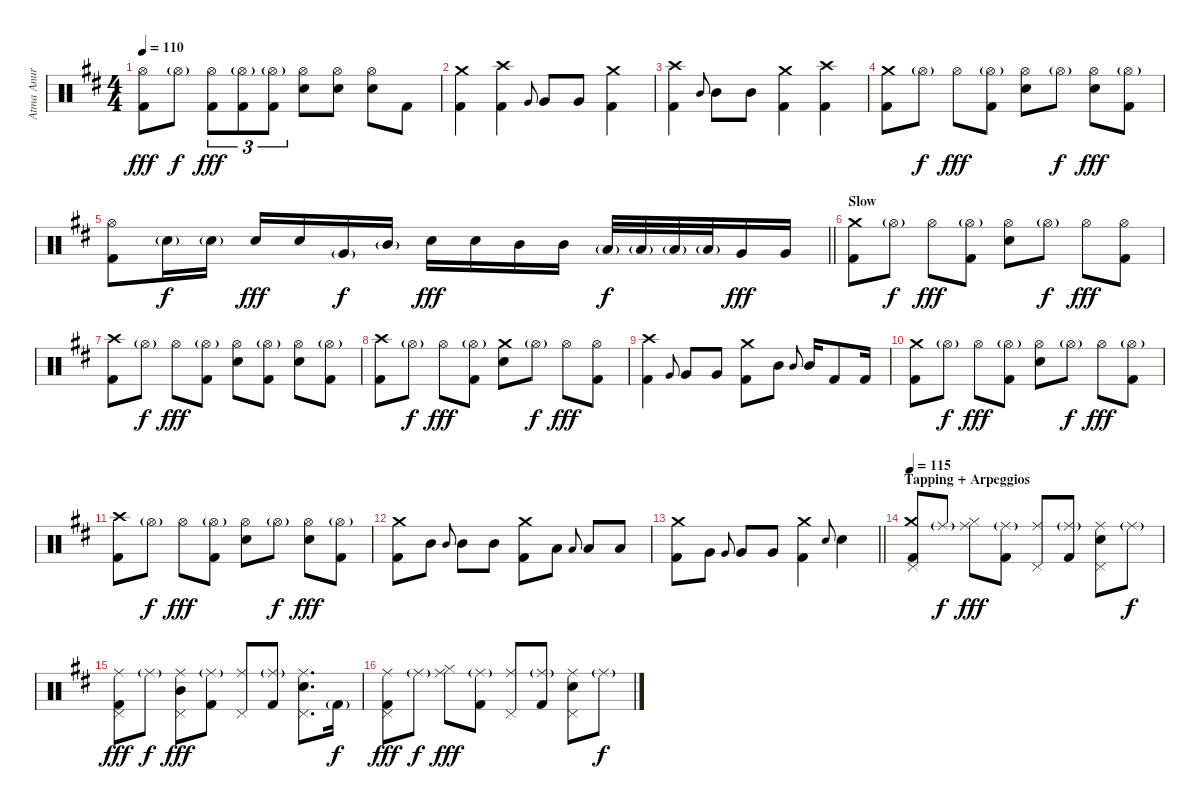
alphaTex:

\track ("Atma Anur" "Atma Anur") {instrument percussion}
\staff {score}
\articulation defaults
\ts (4 4)
\tempo 110
\clef neutral
\ks bminor
("Hi-Hat (open)" "Kick (hit) 2").8{dy fff} "Hi-Hat (open)"{g}.8{dy f} ("Hi-Hat (open)" "Kick (hit) 2").8{tu (3 2) dy fff} ("Hi-Hat (open)"{g} "Kick (hit) 2").8{tu (3 2)} ("Hi-Hat (open)"{g} "Kick (hit) 2").8{tu (3 2)} ("Hi-Hat (open)" "Electric Snare (hit)").8 ("Hi-Hat (open)" "Electric Snare (hit)").8 ("Hi-Hat (open)" "Electric Snare (hit)").8 "Kick (hit) 2".8 |
("Crash medium (hit)" "Kick (hit) 2").4 ("Crash high (hit)" "Kick (hit) 2").4 "Very Low Tom (hit)".8{gr onbeat} "Very Low Tom (hit)".8 "Very Low Tom (hit)".8 ("Crash medium (hit)" "Kick (hit) 2").4 |
("Crash high (hit)" "Kick (hit) 2").4 "Mid Tom (hit)".8{gr onbeat} "Mid Tom (hit)".8 "Mid Tom (hit)".8 ("Crash medium (hit)" "Kick (hit) 2").4 ("Crash high (hit)" "Kick (hit) 2").4 |
("Crash medium (hit)" "Kick (hit) 2").8 "Hi-Hat (open)"{g}.8{dy f} "Hi-Hat (open)".8{dy fff} ("Hi-Hat (open)"{g} "Kick (hit) 2").8 ("Hi-Hat (open)" "Electric Snare (hit)").8 "Hi-Hat (open)"{g}.8{dy f} ("Hi-Hat (open)" "Electric Snare (hit)").8{dy fff} ("Hi-Hat (open)"{g} "Kick (hit) 2").8 |
\barLineRight lightlight
("Hi-Hat (open)" "Kick (hit) 2").8 "Electric Snare (hit)"{g}.16{dy f} "Electric Snare (hit)"{g}.16 "Electric Snare (hit)".16{dy fff} "Electric Snare (hit)".16 "Very Low Tom (hit)"{g}.16{dy f} "Mid Tom (hit)"{g}.16 "Electric Snare (hit)".16{dy fff} "Electric Snare (hit)".16 "Mid Tom (hit)".16 "Mid Tom (hit)".16 "Low Tom (hit)"{g}.32{dy f} "Low Tom (hit)"{g}.32 "Low Tom (hit)"{g}.32 "Low Tom (hit)"{g}.32 "Very Low Tom (hit)".16{dy fff} "Very Low Tom (hit)".16 |
\section ("" "Slow")
("Crash medium (hit)" "Kick (hit) 2").8 "Hi-Hat (open)"{g}.8{dy f} "Hi-Hat (open)".8{dy fff} ("Hi-Hat (open)"{g} "Kick (hit) 2").8 ("Hi-Hat (open)" "Electric Snare (hit)").8 "Hi-Hat (open)"{g}.8{dy f} "Hi-Hat (open)".8{dy fff} ("Hi-Hat (open)" "Kick (hit) 2").8 |
("Crash high (hit)" "Kick (hit) 2").8 "Hi-Hat (open)"{g}.8{dy f} "Hi-Hat (open)".8{dy fff} ("Hi-Hat (open)"{g} "Kick (hit) 2").8 ("Hi-Hat (open)" "Electric Snare (hit)").8 ("Hi-Hat (open)"{g} "Kick (hit) 2").8 ("Hi-Hat (open)" "Electric Snare (hit)").8 ("Hi-Hat (open)"{g} "Kick (hit) 2").8 |
("Crash high (hit)" "Kick (hit) 2").8 "Hi-Hat (open)"{g}.8{dy f} "Hi-Hat (open)".8{dy fff} ("Hi-Hat (open)"{g} "Kick (hit) 2").8 ("Crash medium (hit)" "Electric Snare (hit)").8 "Hi-Hat (open)"{g}.8{dy f} "Hi-Hat (open)".8{dy fff} ("Hi-Hat (open)" "Kick (hit) 2").8 |
("Crash high (hit)" "Kick (hit) 2").4 "Very Low Tom (hit)".8{gr onbeat} "Very Low Tom (hit)".8 "Very Low Tom (hit)".8 ("Crash medium (hit)" "Kick (hit) 2").8 "Mid Tom (hit)".8 "Mid Tom (hit)".8{gr onbeat} "Mid Tom (hit)".16 "Kick (hit) 2".8 "Kick (hit) 2".16 |
("Crash medium (hit)" "Kick (hit) 2").8 "Hi-Hat (open)"{g}.8{dy f} "Hi-Hat (open)".8{dy fff} ("Hi-Hat (open)"{g} "Kick (hit) 2").8 ("Hi-Hat (open)" "Electric Snare (hit)").8 "Hi-Hat (open)"{g}.8{dy f} "Hi-Hat (open)".8{dy fff} ("Hi-Hat (open)"{g} "Kick (hit) 2").8 |
("Crash high (hit)" "Kick (hit) 2").8 "Hi-Hat (open)"{g}.8{dy f} "Hi-Hat (open)".8{dy fff} ("Hi-Hat (open)"{g} "Kick (hit) 2").8 ("Hi-Hat (open)" "Electric Snare (hit)").8 "Hi-Hat (open)"{g}.8{dy f} ("Hi-Hat (open)" "Electric Snare (hit)").8{dy fff} ("Hi-Hat (open)"{g} "Kick (hit) 2").8 |
("Crash medium (hit)" "Kick (hit) 2").8 "Mid Tom (hit)".8 "Mid Tom (hit)".8{gr onbeat} "Mid Tom (hit)".8 "Mid Tom (hit)".8 ("Crash medium (hit)" "Kick (hit) 2").8 "Low Tom (hit)".8 "Low Tom (hit)".8{gr onbeat} "Low Tom (hit)".8 "Low Tom (hit)".8 |
\barLineRight lightlight
("Crash medium (hit)" "Kick (hit) 2").8 "Very Low Tom (hit)".8 "Very Low Tom (hit)".8{gr onbeat} "Very Low Tom (hit)".8 "Very Low Tom (hit)".8 ("Crash medium (hit)" "Kick (hit) 2").4 "Electric Snare (hit)".8{gr onbeat} "Electric Snare (hit)".4 |
\section ("" "Tapping + Arpeggios")
\tempo 115
("Crash medium (hit)" "Pedal Hi-Hat (hit)" "Kick (hit) 2").8 "Ride (middle)"{g}.8{dy f} ("Ride (middle)" "Hi-Hat (closed)").8{dy fff} ("Ride (middle)"{g} "Kick (hit) 2").8 ("Ride (middle)" "Pedal Hi-Hat (hit)").8 ("Ride (middle)"{g} "Kick (hit) 2").8 ("Ride (middle)" "Electric Snare (hit)" "Pedal Hi-Hat (hit)").8 "Ride (middle)"{g}.8{dy f} |
("Ride (middle)" "Pedal Hi-Hat (hit)" "Kick (hit) 2").8{dy fff} "Ride (middle)"{g}.8{dy f} ("Ride (middle)" "Mid Tom (hit)" "Pedal Hi-Hat (hit)").8{dy fff} ("Ride (middle)"{g} "Kick (hit) 2").8 ("Ride (middle)" "Pedal Hi-Hat (hit)").8 ("Ride (middle)"{g} "Kick (hit) 2").8 ("Ride (middle)" "Electric Snare (hit)" "Pedal Hi-Hat (hit)").8{d} "Kick (hit) 2"{g}.16{dy f} |
("Ride (middle)" "Pedal Hi-Hat (hit)" "Kick (hit) 2").8{dy fff} "Ride (middle)"{g}.8{dy f} ("Ride (middle)" "Hi-Hat (closed)").8{dy fff} ("Ride (middle)"{g} "Kick (hit) 2").8 ("Ride (middle)" "Pedal Hi-Hat (hit)").8 ("Ride (middle)"{g} "Kick (hit) 2").8 ("Ride (middle)" "Electric Snare (hit)" "Pedal Hi-Hat (hit)").8 "Ride (middle)"{g}.8{dy f}
